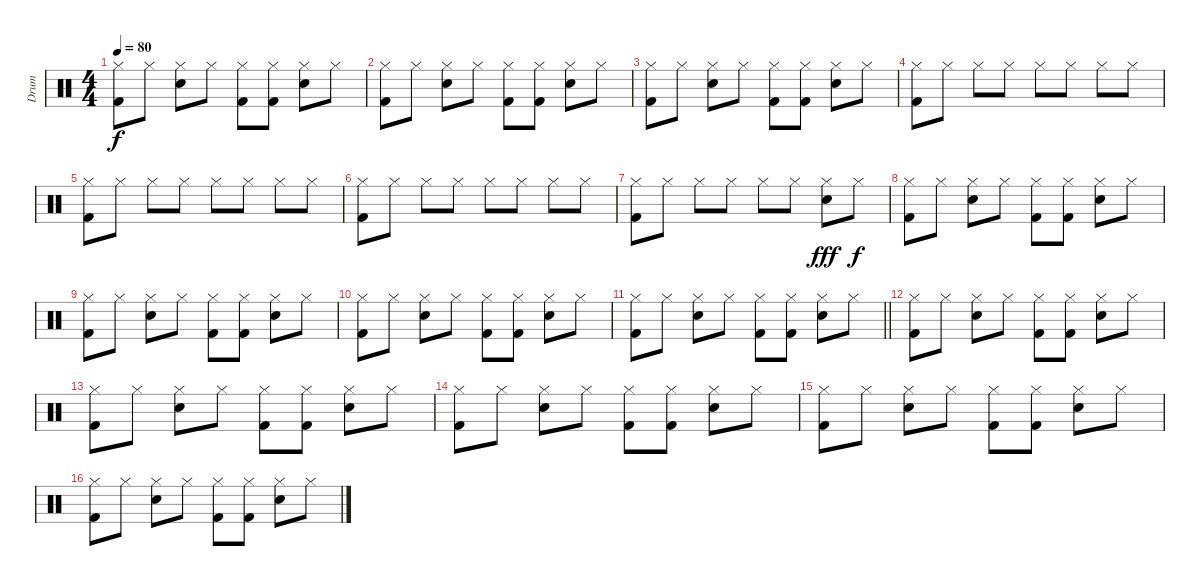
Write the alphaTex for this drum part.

\track ("Drum" "Drum") {instrument percussion}
\staff {score}
\articulation defaults
\ts (4 4)
\tempo 80
\clef neutral
\ks c
("Hi-Hat (closed)" "Kick (hit) 2").8{dy f} "Hi-Hat (closed)".8 ("Hi-Hat (closed)" "Electric Snare (hit)").8 "Hi-Hat (closed)".8 ("Hi-Hat (closed)" "Kick (hit) 2").8 ("Hi-Hat (closed)" "Kick (hit) 2").8 ("Hi-Hat (closed)" "Electric Snare (hit)").8 "Hi-Hat (closed)".8 |
("Hi-Hat (closed)" "Kick (hit) 2").8 "Hi-Hat (closed)".8 ("Hi-Hat (closed)" "Electric Snare (hit)").8 "Hi-Hat (closed)".8 ("Hi-Hat (closed)" "Kick (hit) 2").8 ("Hi-Hat (closed)" "Kick (hit) 2").8 ("Hi-Hat (closed)" "Electric Snare (hit)").8 "Hi-Hat (closed)".8 |
("Hi-Hat (closed)" "Kick (hit) 2").8 "Hi-Hat (closed)".8 ("Hi-Hat (closed)" "Electric Snare (hit)").8 "Hi-Hat (closed)".8 ("Hi-Hat (closed)" "Kick (hit) 2").8 ("Hi-Hat (closed)" "Kick (hit) 2").8 ("Hi-Hat (closed)" "Electric Snare (hit)").8 "Hi-Hat (closed)".8 |
("Hi-Hat (closed)" "Kick (hit) 2").8 "Hi-Hat (closed)".8 "Hi-Hat (closed)".8 "Hi-Hat (closed)".8 "Hi-Hat (closed)".8 "Hi-Hat (closed)".8 "Hi-Hat (closed)".8 "Hi-Hat (closed)".8 |
("Hi-Hat (closed)" "Kick (hit) 2").8 "Hi-Hat (closed)".8 "Hi-Hat (closed)".8 "Hi-Hat (closed)".8 "Hi-Hat (closed)".8 "Hi-Hat (closed)".8 "Hi-Hat (closed)".8 "Hi-Hat (closed)".8 |
("Hi-Hat (closed)" "Kick (hit) 2").8 "Hi-Hat (closed)".8 "Hi-Hat (closed)".8 "Hi-Hat (closed)".8 "Hi-Hat (closed)".8 "Hi-Hat (closed)".8 "Hi-Hat (closed)".8 "Hi-Hat (closed)".8 |
("Hi-Hat (closed)" "Kick (hit) 2").8 "Hi-Hat (closed)".8 "Hi-Hat (closed)".8 "Hi-Hat (closed)".8 "Hi-Hat (closed)".8 "Hi-Hat (closed)".8 ("Hi-Hat (closed)" "Electric Snare (hit)").8{dy fff} "Hi-Hat (closed)".8{dy f} |
("Hi-Hat (closed)" "Kick (hit) 2").8 "Hi-Hat (closed)".8 ("Hi-Hat (closed)" "Electric Snare (hit)").8 "Hi-Hat (closed)".8 ("Hi-Hat (closed)" "Kick (hit) 2").8 ("Hi-Hat (closed)" "Kick (hit) 2").8 ("Hi-Hat (closed)" "Electric Snare (hit)").8 "Hi-Hat (closed)".8 |
("Hi-Hat (closed)" "Kick (hit) 2").8 "Hi-Hat (closed)".8 ("Hi-Hat (closed)" "Electric Snare (hit)").8 "Hi-Hat (closed)".8 ("Hi-Hat (closed)" "Kick (hit) 2").8 ("Hi-Hat (closed)" "Kick (hit) 2").8 ("Hi-Hat (closed)" "Electric Snare (hit)").8 "Hi-Hat (closed)".8 |
("Hi-Hat (closed)" "Kick (hit) 2").8 "Hi-Hat (closed)".8 ("Hi-Hat (closed)" "Electric Snare (hit)").8 "Hi-Hat (closed)".8 ("Hi-Hat (closed)" "Kick (hit) 2").8 ("Hi-Hat (closed)" "Kick (hit) 2").8 ("Hi-Hat (closed)" "Electric Snare (hit)").8 "Hi-Hat (closed)".8 |
\barLineRight lightlight
("Hi-Hat (closed)" "Kick (hit) 2").8 "Hi-Hat (closed)".8 ("Hi-Hat (closed)" "Electric Snare (hit)").8 "Hi-Hat (closed)".8 ("Hi-Hat (closed)" "Kick (hit) 2").8 ("Hi-Hat (closed)" "Kick (hit) 2").8 ("Hi-Hat (closed)" "Electric Snare (hit)").8 "Hi-Hat (closed)".8 |
("Hi-Hat (closed)" "Kick (hit) 2").8 "Hi-Hat (closed)".8 ("Hi-Hat (closed)" "Electric Snare (hit)").8 "Hi-Hat (closed)".8 ("Hi-Hat (closed)" "Kick (hit) 2").8 ("Hi-Hat (closed)" "Kick (hit) 2").8 ("Hi-Hat (closed)" "Electric Snare (hit)").8 "Hi-Hat (closed)".8 |
("Hi-Hat (closed)" "Kick (hit) 2").8 "Hi-Hat (closed)".8 ("Hi-Hat (closed)" "Electric Snare (hit)").8 "Hi-Hat (closed)".8 ("Hi-Hat (closed)" "Kick (hit) 2").8 ("Hi-Hat (closed)" "Kick (hit) 2").8 ("Hi-Hat (closed)" "Electric Snare (hit)").8 "Hi-Hat (closed)".8 |
("Hi-Hat (closed)" "Kick (hit) 2").8 "Hi-Hat (closed)".8 ("Hi-Hat (closed)" "Electric Snare (hit)").8 "Hi-Hat (closed)".8 ("Hi-Hat (closed)" "Kick (hit) 2").8 ("Hi-Hat (closed)" "Kick (hit) 2").8 ("Hi-Hat (closed)" "Electric Snare (hit)").8 "Hi-Hat (closed)".8 |
("Hi-Hat (closed)" "Kick (hit) 2").8 "Hi-Hat (closed)".8 ("Hi-Hat (closed)" "Electric Snare (hit)").8 "Hi-Hat (closed)".8 ("Hi-Hat (closed)" "Kick (hit) 2").8 ("Hi-Hat (closed)" "Kick (hit) 2").8 ("Hi-Hat (closed)" "Electric Snare (hit)").8 "Hi-Hat (closed)".8 |
("Hi-Hat (closed)" "Kick (hit) 2").8 "Hi-Hat (closed)".8 ("Hi-Hat (closed)" "Electric Snare (hit)").8 "Hi-Hat (closed)".8 ("Hi-Hat (closed)" "Kick (hit) 2").8 ("Hi-Hat (closed)" "Kick (hit) 2").8 ("Hi-Hat (closed)" "Electric Snare (hit)").8 "Hi-Hat (closed)".8
